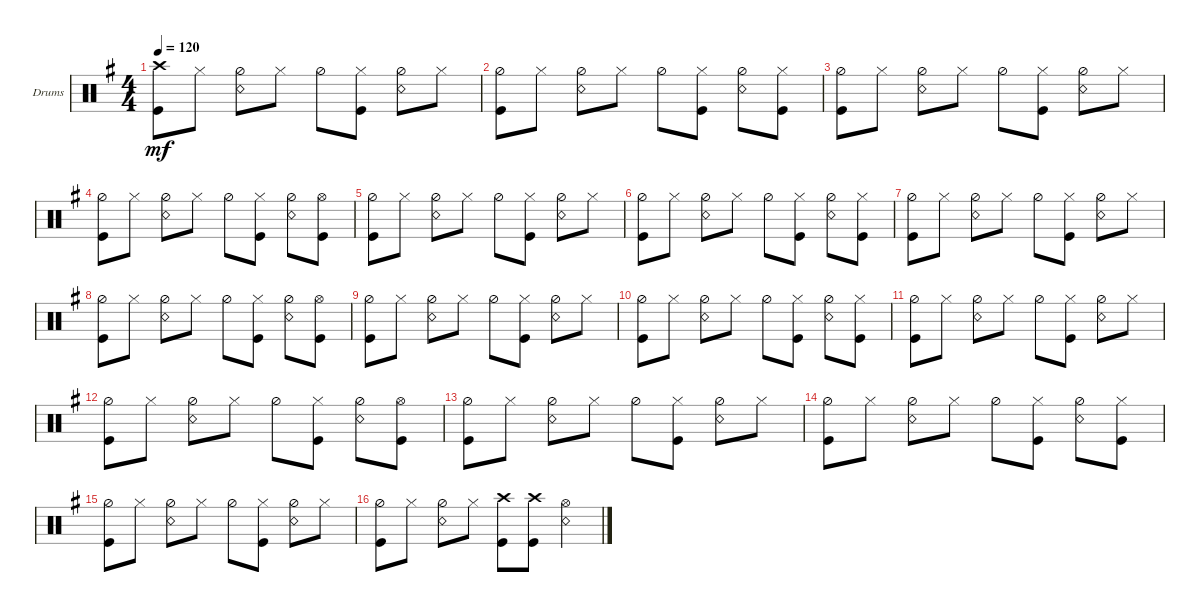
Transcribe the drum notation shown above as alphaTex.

\defaultSystemsLayout 4
\bracketExtendMode groupsimilarinstruments
\firstSystemTrackNameOrientation horizontal
\otherSystemsTrackNameOrientation horizontal
\track ("Drumkit" "Drums") {instrument percussion}
\staff {score}
\articulation defaults
\ts (4 4)
\tempo 120
\clef neutral
\ks eminor
("Kick (hit)" "Crash high (hit)").8{dy mf} "Hi-Hat (closed)".8 ("Hi-Hat (half)" "Snare (rim shot)").8 "Hi-Hat (closed)".8 "Hi-Hat (half)".8 ("Kick (hit)" "Hi-Hat (closed)").8 ("Hi-Hat (half)" "Snare (rim shot)").8 "Hi-Hat (closed)".8 |
("Kick (hit)" "Hi-Hat (half)").8 "Hi-Hat (closed)".8 ("Hi-Hat (half)" "Snare (rim shot)").8 "Hi-Hat (closed)".8 "Hi-Hat (half)".8 ("Kick (hit)" "Hi-Hat (closed)").8 ("Hi-Hat (half)" "Snare (rim shot)").8 ("Hi-Hat (closed)" "Kick (hit)").8 |
("Kick (hit)" "Hi-Hat (half)").8 "Hi-Hat (closed)".8 ("Hi-Hat (half)" "Snare (rim shot)").8 "Hi-Hat (closed)".8 "Hi-Hat (half)".8 ("Kick (hit)" "Hi-Hat (closed)").8 ("Hi-Hat (half)" "Snare (rim shot)").8 "Hi-Hat (closed)".8 |
("Kick (hit)" "Hi-Hat (half)").8 "Hi-Hat (closed)".8 ("Hi-Hat (half)" "Snare (rim shot)").8 "Hi-Hat (closed)".8 "Hi-Hat (half)".8 ("Kick (hit)" "Hi-Hat (closed)").8 ("Hi-Hat (half)" "Snare (rim shot)").8 ("Hi-Hat (open)" "Kick (hit)").8 |
("Kick (hit)" "Hi-Hat (half)").8 "Hi-Hat (closed)".8 ("Hi-Hat (half)" "Snare (rim shot)").8 "Hi-Hat (closed)".8 "Hi-Hat (half)".8 ("Kick (hit)" "Hi-Hat (closed)").8 ("Hi-Hat (half)" "Snare (rim shot)").8 "Hi-Hat (closed)".8 |
("Kick (hit)" "Hi-Hat (half)").8 "Hi-Hat (closed)".8 ("Hi-Hat (half)" "Snare (rim shot)").8 "Hi-Hat (closed)".8 "Hi-Hat (half)".8 ("Kick (hit)" "Hi-Hat (closed)").8 ("Hi-Hat (half)" "Snare (rim shot)").8 ("Hi-Hat (closed)" "Kick (hit)").8 |
("Kick (hit)" "Hi-Hat (half)").8 "Hi-Hat (closed)".8 ("Hi-Hat (half)" "Snare (rim shot)").8 "Hi-Hat (closed)".8 "Hi-Hat (half)".8 ("Kick (hit)" "Hi-Hat (closed)").8 ("Hi-Hat (half)" "Snare (rim shot)").8 "Hi-Hat (closed)".8 |
("Kick (hit)" "Hi-Hat (half)").8 "Hi-Hat (closed)".8 ("Hi-Hat (half)" "Snare (rim shot)").8 "Hi-Hat (closed)".8 "Hi-Hat (half)".8 ("Kick (hit)" "Hi-Hat (closed)").8 ("Hi-Hat (half)" "Snare (rim shot)").8 ("Hi-Hat (open)" "Kick (hit)").8 |
("Kick (hit)" "Hi-Hat (half)").8 "Hi-Hat (closed)".8 ("Hi-Hat (half)" "Snare (rim shot)").8 "Hi-Hat (closed)".8 "Hi-Hat (half)".8 ("Kick (hit)" "Hi-Hat (closed)").8 ("Hi-Hat (half)" "Snare (rim shot)").8 "Hi-Hat (closed)".8 |
("Kick (hit)" "Hi-Hat (half)").8 "Hi-Hat (closed)".8 ("Hi-Hat (half)" "Snare (rim shot)").8 "Hi-Hat (closed)".8 "Hi-Hat (half)".8 ("Kick (hit)" "Hi-Hat (closed)").8 ("Hi-Hat (half)" "Snare (rim shot)").8 ("Hi-Hat (closed)" "Kick (hit)").8 |
("Kick (hit)" "Hi-Hat (half)").8 "Hi-Hat (closed)".8 ("Hi-Hat (half)" "Snare (rim shot)").8 "Hi-Hat (closed)".8 "Hi-Hat (half)".8 ("Kick (hit)" "Hi-Hat (closed)").8 ("Hi-Hat (half)" "Snare (rim shot)").8 "Hi-Hat (closed)".8 |
("Kick (hit)" "Hi-Hat (half)").8 "Hi-Hat (closed)".8 ("Hi-Hat (half)" "Snare (rim shot)").8 "Hi-Hat (closed)".8 "Hi-Hat (half)".8 ("Kick (hit)" "Hi-Hat (closed)").8 ("Hi-Hat (half)" "Snare (rim shot)").8 ("Hi-Hat (open)" "Kick (hit)").8 |
("Kick (hit)" "Hi-Hat (half)").8 "Hi-Hat (closed)".8 ("Hi-Hat (half)" "Snare (rim shot)").8 "Hi-Hat (closed)".8 "Hi-Hat (half)".8 ("Kick (hit)" "Hi-Hat (closed)").8 ("Hi-Hat (half)" "Snare (rim shot)").8 "Hi-Hat (closed)".8 |
("Kick (hit)" "Hi-Hat (half)").8 "Hi-Hat (closed)".8 ("Hi-Hat (half)" "Snare (rim shot)").8 "Hi-Hat (closed)".8 "Hi-Hat (half)".8 ("Kick (hit)" "Hi-Hat (closed)").8 ("Hi-Hat (half)" "Snare (rim shot)").8 ("Hi-Hat (closed)" "Kick (hit)").8 |
("Kick (hit)" "Hi-Hat (half)").8 "Hi-Hat (closed)".8 ("Hi-Hat (half)" "Snare (rim shot)").8 "Hi-Hat (closed)".8 "Hi-Hat (half)".8 ("Kick (hit)" "Hi-Hat (closed)").8 ("Hi-Hat (half)" "Snare (rim shot)").8 "Hi-Hat (closed)".8 |
("Kick (hit)" "Hi-Hat (half)").8 "Hi-Hat (closed)".8 ("Hi-Hat (half)" "Snare (rim shot)").8 "Hi-Hat (closed)".8 ("Crash high (hit)" "Kick (hit)").8 ("Kick (hit)" "Crash high (hit)").8 ("Hi-Hat (open)" "Snare (rim shot)").4
